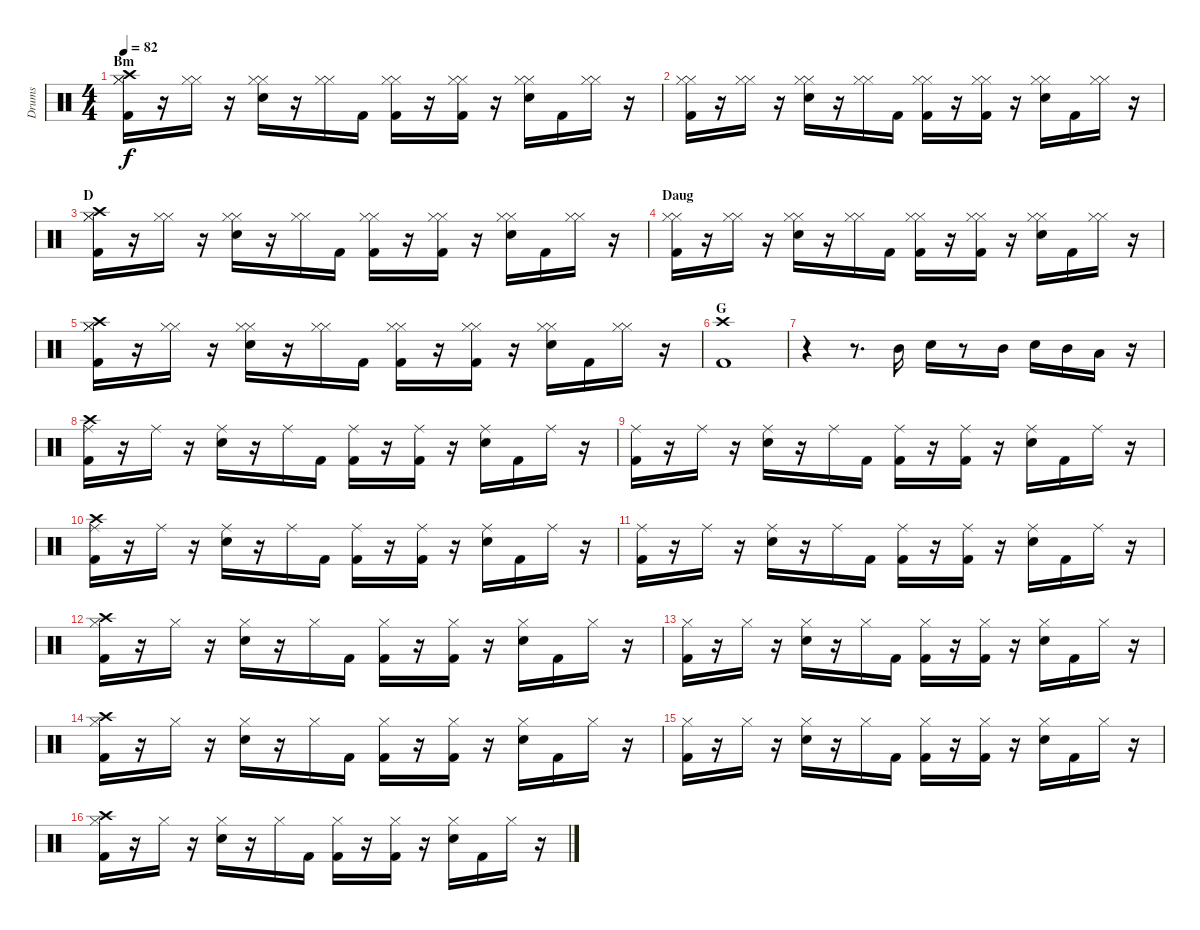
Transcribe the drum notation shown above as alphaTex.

\track ("Drums" "Drums") {instrument percussion}
\staff {score}
\articulation defaults
\ts (4 4)
\section ("" "Bm")
\tempo 82
\clef neutral
\ks c
("Crash high (hit)" "Hi-Hat (closed)" "Hi-Hat (closed)" "Kick (hit) 2").16{dy f} r.16 ("Hi-Hat (closed)" "Hi-Hat (closed)").16 r.16 ("Hi-Hat (closed)" "Hi-Hat (closed)" "Snare (hit) 2").16 r.16 ("Hi-Hat (closed)" "Hi-Hat (closed)").16 "Kick (hit) 2".16 ("Hi-Hat (closed)" "Hi-Hat (closed)" "Kick (hit) 2").16 r.16 ("Hi-Hat (closed)" "Hi-Hat (closed)" "Kick (hit) 2").16 r.16 ("Hi-Hat (closed)" "Hi-Hat (closed)" "Snare (hit) 2").16 "Kick (hit) 2".16 ("Hi-Hat (closed)" "Hi-Hat (closed)").16 r.16 |
("Hi-Hat (closed)" "Hi-Hat (closed)" "Kick (hit) 2").16 r.16 ("Hi-Hat (closed)" "Hi-Hat (closed)").16 r.16 ("Hi-Hat (closed)" "Hi-Hat (closed)" "Snare (hit) 2").16 r.16 ("Hi-Hat (closed)" "Hi-Hat (closed)").16 "Kick (hit) 2".16 ("Hi-Hat (closed)" "Hi-Hat (closed)" "Kick (hit) 2").16 r.16 ("Hi-Hat (closed)" "Hi-Hat (closed)" "Kick (hit) 2").16 r.16 ("Hi-Hat (closed)" "Hi-Hat (closed)" "Snare (hit) 2").16 "Kick (hit) 2".16 ("Hi-Hat (closed)" "Hi-Hat (closed)").16 r.16 |
\section ("" "D")
("Crash high (hit)" "Hi-Hat (closed)" "Hi-Hat (closed)" "Kick (hit) 2").16 r.16 ("Hi-Hat (closed)" "Hi-Hat (closed)").16 r.16 ("Hi-Hat (closed)" "Hi-Hat (closed)" "Snare (hit) 2").16 r.16 ("Hi-Hat (closed)" "Hi-Hat (closed)").16 "Kick (hit) 2".16 ("Hi-Hat (closed)" "Hi-Hat (closed)" "Kick (hit) 2").16 r.16 ("Hi-Hat (closed)" "Hi-Hat (closed)" "Kick (hit) 2").16 r.16 ("Hi-Hat (closed)" "Hi-Hat (closed)" "Snare (hit) 2").16 "Kick (hit) 2".16 ("Hi-Hat (closed)" "Hi-Hat (closed)").16 r.16 |
\section ("" "Daug")
("Hi-Hat (closed)" "Hi-Hat (closed)" "Kick (hit) 2").16 r.16 ("Hi-Hat (closed)" "Hi-Hat (closed)").16 r.16 ("Hi-Hat (closed)" "Hi-Hat (closed)" "Snare (hit) 2").16 r.16 ("Hi-Hat (closed)" "Hi-Hat (closed)").16 "Kick (hit) 2".16 ("Hi-Hat (closed)" "Hi-Hat (closed)" "Kick (hit) 2").16 r.16 ("Hi-Hat (closed)" "Hi-Hat (closed)" "Kick (hit) 2").16 r.16 ("Hi-Hat (closed)" "Hi-Hat (closed)" "Snare (hit) 2").16 "Kick (hit) 2".16 ("Hi-Hat (closed)" "Hi-Hat (closed)").16 r.16 |
("Crash high (hit)" "Hi-Hat (closed)" "Hi-Hat (closed)" "Kick (hit) 2").16 r.16 ("Hi-Hat (closed)" "Hi-Hat (closed)").16 r.16 ("Hi-Hat (closed)" "Hi-Hat (closed)" "Snare (hit) 2").16 r.16 ("Hi-Hat (closed)" "Hi-Hat (closed)").16 "Kick (hit) 2".16 ("Hi-Hat (closed)" "Hi-Hat (closed)" "Kick (hit) 2").16 r.16 ("Hi-Hat (closed)" "Hi-Hat (closed)" "Kick (hit) 2").16 r.16 ("Hi-Hat (closed)" "Hi-Hat (closed)" "Snare (hit) 2").16 "Kick (hit) 2".16 ("Hi-Hat (closed)" "Hi-Hat (closed)").16 r.16 |
\section ("" "G")
("Crash high (hit)" "Kick (hit) 2").1 |
r.4 r.8{d} "Mid Tom (hit)".16 "Snare (hit) 2".16 r.8 "Mid Tom (hit)".16 "Snare (hit) 2".16 "Mid Tom (hit)".16 "Low Tom (hit)".16 r.16 |
("Crash high (hit)" "Ride (middle)" "Kick (hit) 2").16 r.16 "Ride (middle)".16 r.16 ("Ride (middle)" "Snare (hit) 2").16 r.16 "Ride (middle)".16 "Kick (hit) 2".16 ("Ride (middle)" "Kick (hit) 2").16 r.16 ("Ride (middle)" "Kick (hit) 2").16 r.16 ("Ride (middle)" "Snare (hit) 2").16 "Kick (hit) 2".16 "Ride (middle)".16 r.16 |
("Ride (middle)" "Kick (hit) 2").16 r.16 "Ride (middle)".16 r.16 ("Ride (middle)" "Snare (hit) 2").16 r.16 "Ride (middle)".16 "Kick (hit) 2".16 ("Ride (middle)" "Kick (hit) 2").16 r.16 ("Ride (middle)" "Kick (hit) 2").16 r.16 ("Ride (middle)" "Snare (hit) 2").16 "Kick (hit) 2".16 "Ride (middle)".16 r.16 |
("Crash high (hit)" "Ride (middle)" "Kick (hit) 2").16 r.16 "Ride (middle)".16 r.16 ("Ride (middle)" "Snare (hit) 2").16 r.16 "Ride (middle)".16 "Kick (hit) 2".16 ("Ride (middle)" "Kick (hit) 2").16 r.16 ("Ride (middle)" "Kick (hit) 2").16 r.16 ("Ride (middle)" "Snare (hit) 2").16 "Kick (hit) 2".16 "Ride (middle)".16 r.16 |
("Ride (middle)" "Kick (hit) 2").16 r.16 "Ride (middle)".16 r.16 ("Ride (middle)" "Snare (hit) 2").16 r.16 "Ride (middle)".16 "Kick (hit) 2".16 ("Ride (middle)" "Kick (hit) 2").16 r.16 ("Ride (middle)" "Kick (hit) 2").16 r.16 ("Ride (middle)" "Snare (hit) 2").16 "Kick (hit) 2".16 "Ride (middle)".16 r.16 |
("Crash high (hit)" "Hi-Hat (closed)" "Kick (hit) 2").16 r.16 "Hi-Hat (closed)".16 r.16 ("Hi-Hat (closed)" "Snare (hit) 2").16 r.16 "Hi-Hat (closed)".16 "Kick (hit) 2".16 ("Hi-Hat (closed)" "Kick (hit) 2").16 r.16 ("Hi-Hat (closed)" "Kick (hit) 2").16 r.16 ("Hi-Hat (closed)" "Snare (hit) 2").16 "Kick (hit) 2".16 "Hi-Hat (closed)".16 r.16 |
("Hi-Hat (closed)" "Kick (hit) 2").16 r.16 "Hi-Hat (closed)".16 r.16 ("Hi-Hat (closed)" "Snare (hit) 2").16 r.16 "Hi-Hat (closed)".16 "Kick (hit) 2".16 ("Hi-Hat (closed)" "Kick (hit) 2").16 r.16 ("Hi-Hat (closed)" "Kick (hit) 2").16 r.16 ("Hi-Hat (closed)" "Snare (hit) 2").16 "Kick (hit) 2".16 "Hi-Hat (closed)".16 r.16 |
("Crash high (hit)" "Hi-Hat (closed)" "Kick (hit) 2").16 r.16 "Hi-Hat (closed)".16 r.16 ("Hi-Hat (closed)" "Snare (hit) 2").16 r.16 "Hi-Hat (closed)".16 "Kick (hit) 2".16 ("Hi-Hat (closed)" "Kick (hit) 2").16 r.16 ("Hi-Hat (closed)" "Kick (hit) 2").16 r.16 ("Hi-Hat (closed)" "Snare (hit) 2").16 "Kick (hit) 2".16 "Hi-Hat (closed)".16 r.16 |
("Hi-Hat (closed)" "Kick (hit) 2").16 r.16 "Hi-Hat (closed)".16 r.16 ("Hi-Hat (closed)" "Snare (hit) 2").16 r.16 "Hi-Hat (closed)".16 "Kick (hit) 2".16 ("Hi-Hat (closed)" "Kick (hit) 2").16 r.16 ("Hi-Hat (closed)" "Kick (hit) 2").16 r.16 ("Hi-Hat (closed)" "Snare (hit) 2").16 "Kick (hit) 2".16 "Hi-Hat (closed)".16 r.16 |
("Crash high (hit)" "Hi-Hat (closed)" "Kick (hit) 2").16 r.16 "Hi-Hat (closed)".16 r.16 ("Hi-Hat (closed)" "Snare (hit) 2").16 r.16 "Hi-Hat (closed)".16 "Kick (hit) 2".16 ("Hi-Hat (closed)" "Kick (hit) 2").16 r.16 ("Hi-Hat (closed)" "Kick (hit) 2").16 r.16 ("Hi-Hat (closed)" "Snare (hit) 2").16 "Kick (hit) 2".16 "Hi-Hat (closed)".16 r.16
